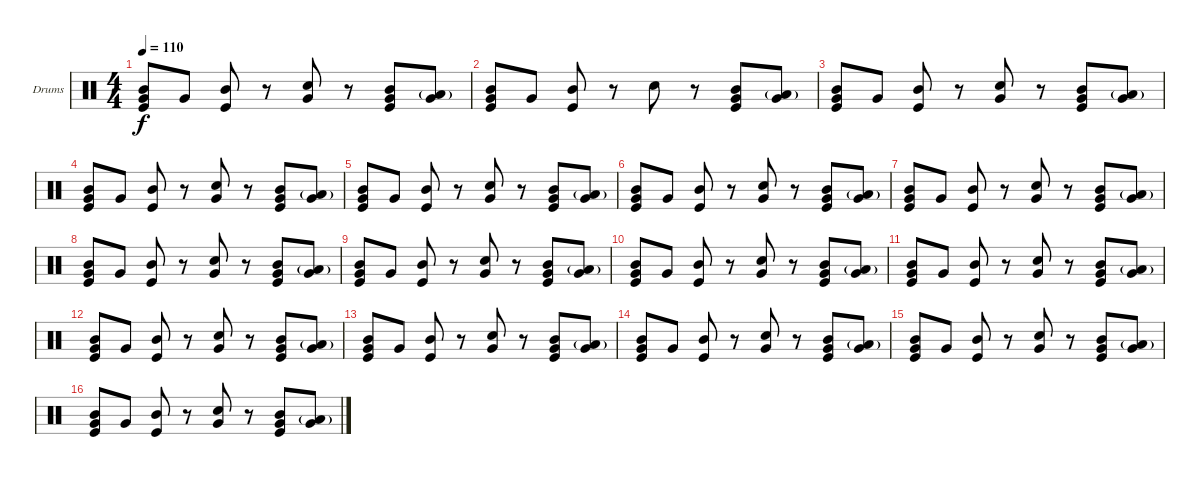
\defaultSystemsLayout 4
\bracketExtendMode groupsimilarinstruments
\firstSystemTrackNameOrientation horizontal
\otherSystemsTrackNameOrientation horizontal
\track ("Drumkit" "Drums") {instrument percussion}
\staff {score}
\articulation defaults
\ts (4 4)
\tempo 110
\clef neutral
\scale
0.333333
\ks c
("Mid Tom (hit)" "Very Low Tom (hit)" "Kick (hit)").8{dy f} "Very Low Tom (hit)".8 ("Mid Tom (hit)" "Kick (hit)").8 r.8 ("Very Low Tom (hit)" "Snare (hit) 2").8 r.8 ("Mid Tom (hit)" "Very Low Tom (hit)" "Kick (hit)").8 ("Low Tom (hit)"{g} "Very Low Tom (hit)").8 |
\scale
0.333333 ("Mid Tom (hit)" "Very Low Tom (hit)" "Kick (hit)").8 "Very Low Tom (hit)".8 ("Mid Tom (hit)" "Kick (hit)").8 r.8 "Snare (hit) 2".8 r.8 ("Mid Tom (hit)" "Very Low Tom (hit)" "Kick (hit)").8 ("Low Tom (hit)"{g} "Very Low Tom (hit)").8 |
\scale
0.333333 ("Mid Tom (hit)" "Very Low Tom (hit)" "Kick (hit)").8 "Very Low Tom (hit)".8 ("Mid Tom (hit)" "Kick (hit)").8 r.8 ("Very Low Tom (hit)" "Snare (hit) 2").8 r.8 ("Mid Tom (hit)" "Very Low Tom (hit)" "Kick (hit)").8 ("Low Tom (hit)"{g} "Very Low Tom (hit)").8 |
\scale
0.333333 ("Mid Tom (hit)" "Very Low Tom (hit)" "Kick (hit)").8 "Very Low Tom (hit)".8 ("Mid Tom (hit)" "Kick (hit)").8 r.8 ("Very Low Tom (hit)" "Snare (hit) 2").8 r.8 ("Mid Tom (hit)" "Very Low Tom (hit)" "Kick (hit)").8 ("Low Tom (hit)"{g} "Very Low Tom (hit)").8 |
\scale
0.333333 ("Mid Tom (hit)" "Very Low Tom (hit)" "Kick (hit)").8 "Very Low Tom (hit)".8 ("Mid Tom (hit)" "Kick (hit)").8 r.8 ("Very Low Tom (hit)" "Snare (hit) 2").8 r.8 ("Mid Tom (hit)" "Very Low Tom (hit)" "Kick (hit)").8 ("Low Tom (hit)"{g} "Very Low Tom (hit)").8 |
\scale
0.333333 ("Mid Tom (hit)" "Very Low Tom (hit)" "Kick (hit)").8 "Very Low Tom (hit)".8 ("Mid Tom (hit)" "Kick (hit)").8 r.8 ("Very Low Tom (hit)" "Snare (hit) 2").8 r.8 ("Mid Tom (hit)" "Very Low Tom (hit)" "Kick (hit)").8 ("Low Tom (hit)"{g} "Very Low Tom (hit)").8 |
\scale
0.333333 ("Mid Tom (hit)" "Very Low Tom (hit)" "Kick (hit)").8 "Very Low Tom (hit)".8 ("Mid Tom (hit)" "Kick (hit)").8 r.8 ("Very Low Tom (hit)" "Snare (hit) 2").8 r.8 ("Mid Tom (hit)" "Very Low Tom (hit)" "Kick (hit)").8 ("Low Tom (hit)"{g} "Very Low Tom (hit)").8 |
\scale
0.333333 ("Mid Tom (hit)" "Very Low Tom (hit)" "Kick (hit)").8 "Very Low Tom (hit)".8 ("Mid Tom (hit)" "Kick (hit)").8 r.8 ("Very Low Tom (hit)" "Snare (hit) 2").8 r.8 ("Mid Tom (hit)" "Very Low Tom (hit)" "Kick (hit)").8 ("Low Tom (hit)"{g} "Very Low Tom (hit)").8 |
\scale
0.333333 ("Mid Tom (hit)" "Very Low Tom (hit)" "Kick (hit)").8 "Very Low Tom (hit)".8 ("Mid Tom (hit)" "Kick (hit)").8 r.8 ("Very Low Tom (hit)" "Snare (hit) 2").8 r.8 ("Mid Tom (hit)" "Very Low Tom (hit)" "Kick (hit)").8 ("Low Tom (hit)"{g} "Very Low Tom (hit)").8 |
\scale
0.333333 ("Mid Tom (hit)" "Very Low Tom (hit)" "Kick (hit)").8 "Very Low Tom (hit)".8 ("Mid Tom (hit)" "Kick (hit)").8 r.8 ("Very Low Tom (hit)" "Snare (hit) 2").8 r.8 ("Mid Tom (hit)" "Very Low Tom (hit)" "Kick (hit)").8 ("Low Tom (hit)"{g} "Very Low Tom (hit)").8 |
\scale
0.333333 ("Mid Tom (hit)" "Very Low Tom (hit)" "Kick (hit)").8 "Very Low Tom (hit)".8 ("Mid Tom (hit)" "Kick (hit)").8 r.8 ("Very Low Tom (hit)" "Snare (hit) 2").8 r.8 ("Mid Tom (hit)" "Very Low Tom (hit)" "Kick (hit)").8 ("Low Tom (hit)"{g} "Very Low Tom (hit)").8 |
\scale
0.333333 ("Mid Tom (hit)" "Very Low Tom (hit)" "Kick (hit)").8 "Very Low Tom (hit)".8 ("Mid Tom (hit)" "Kick (hit)").8 r.8 ("Very Low Tom (hit)" "Snare (hit) 2").8 r.8 ("Mid Tom (hit)" "Very Low Tom (hit)" "Kick (hit)").8 ("Low Tom (hit)"{g} "Very Low Tom (hit)").8 |
\scale
0.333333 ("Mid Tom (hit)" "Very Low Tom (hit)" "Kick (hit)").8 "Very Low Tom (hit)".8 ("Mid Tom (hit)" "Kick (hit)").8 r.8 ("Very Low Tom (hit)" "Snare (hit) 2").8 r.8 ("Mid Tom (hit)" "Very Low Tom (hit)" "Kick (hit)").8 ("Low Tom (hit)"{g} "Very Low Tom (hit)").8 |
\scale
0.333333 ("Mid Tom (hit)" "Very Low Tom (hit)" "Kick (hit)").8 "Very Low Tom (hit)".8 ("Mid Tom (hit)" "Kick (hit)").8 r.8 ("Very Low Tom (hit)" "Snare (hit) 2").8 r.8 ("Mid Tom (hit)" "Very Low Tom (hit)" "Kick (hit)").8 ("Low Tom (hit)"{g} "Very Low Tom (hit)").8 |
\scale
0.333333 ("Mid Tom (hit)" "Very Low Tom (hit)" "Kick (hit)").8 "Very Low Tom (hit)".8 ("Mid Tom (hit)" "Kick (hit)").8 r.8 ("Very Low Tom (hit)" "Snare (hit) 2").8 r.8 ("Mid Tom (hit)" "Very Low Tom (hit)" "Kick (hit)").8 ("Low Tom (hit)"{g} "Very Low Tom (hit)").8 |
\scale
0.333333 ("Mid Tom (hit)" "Very Low Tom (hit)" "Kick (hit)").8 "Very Low Tom (hit)".8 ("Mid Tom (hit)" "Kick (hit)").8 r.8 ("Very Low Tom (hit)" "Snare (hit) 2").8 r.8 ("Mid Tom (hit)" "Very Low Tom (hit)" "Kick (hit)").8 ("Low Tom (hit)"{g} "Very Low Tom (hit)").8
